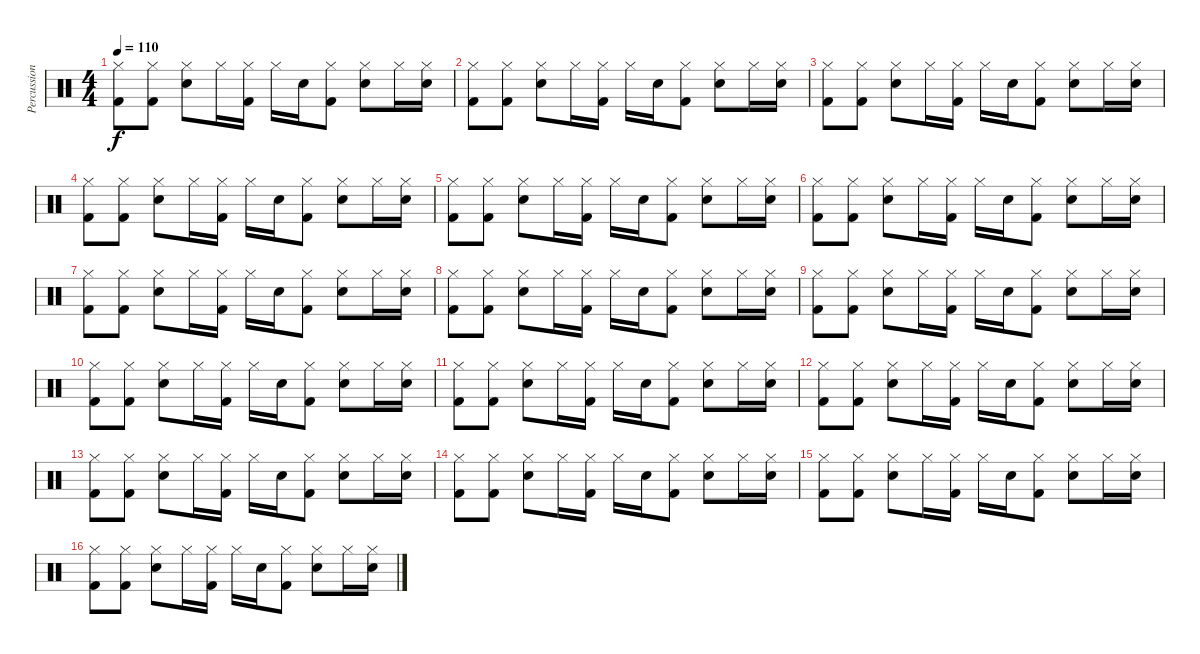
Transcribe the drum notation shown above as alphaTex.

\track ("Percussion" "Percussion") {instrument percussion}
\staff {score}
\articulation defaults
\ts (4 4)
\tempo 110
\clef neutral
\ks c
("Hi-Hat (closed)" "Kick (hit) 2").8{dy f} ("Hi-Hat (closed)" "Kick (hit) 2").8 ("Hi-Hat (closed)" "Snare (hit) 2").8 "Hi-Hat (closed)".16 ("Hi-Hat (closed)" "Kick (hit) 2").16 "Hi-Hat (closed)".16 "Snare (hit) 2".16 ("Hi-Hat (closed)" "Kick (hit) 2").8 ("Hi-Hat (closed)" "Snare (hit) 2").8 "Hi-Hat (closed)".16 ("Hi-Hat (closed)" "Snare (hit) 2").16 |
("Hi-Hat (closed)" "Kick (hit) 2").8 ("Hi-Hat (closed)" "Kick (hit) 2").8 ("Hi-Hat (closed)" "Snare (hit) 2").8 "Hi-Hat (closed)".16 ("Hi-Hat (closed)" "Kick (hit) 2").16 "Hi-Hat (closed)".16 "Snare (hit) 2".16 ("Hi-Hat (closed)" "Kick (hit) 2").8 ("Hi-Hat (closed)" "Snare (hit) 2").8 "Hi-Hat (closed)".16 ("Hi-Hat (closed)" "Snare (hit) 2").16 |
("Hi-Hat (closed)" "Kick (hit) 2").8 ("Hi-Hat (closed)" "Kick (hit) 2").8 ("Hi-Hat (closed)" "Snare (hit) 2").8 "Hi-Hat (closed)".16 ("Hi-Hat (closed)" "Kick (hit) 2").16 "Hi-Hat (closed)".16 "Snare (hit) 2".16 ("Hi-Hat (closed)" "Kick (hit) 2").8 ("Hi-Hat (closed)" "Snare (hit) 2").8 "Hi-Hat (closed)".16 ("Hi-Hat (closed)" "Snare (hit) 2").16 |
("Hi-Hat (closed)" "Kick (hit) 2").8 ("Hi-Hat (closed)" "Kick (hit) 2").8 ("Hi-Hat (closed)" "Snare (hit) 2").8 "Hi-Hat (closed)".16 ("Hi-Hat (closed)" "Kick (hit) 2").16 "Hi-Hat (closed)".16 "Snare (hit) 2".16 ("Hi-Hat (closed)" "Kick (hit) 2").8 ("Hi-Hat (closed)" "Snare (hit) 2").8 "Hi-Hat (closed)".16 ("Hi-Hat (closed)" "Snare (hit) 2").16 |
("Hi-Hat (closed)" "Kick (hit) 2").8 ("Hi-Hat (closed)" "Kick (hit) 2").8 ("Hi-Hat (closed)" "Snare (hit) 2").8 "Hi-Hat (closed)".16 ("Hi-Hat (closed)" "Kick (hit) 2").16 "Hi-Hat (closed)".16 "Snare (hit) 2".16 ("Hi-Hat (closed)" "Kick (hit) 2").8 ("Hi-Hat (closed)" "Snare (hit) 2").8 "Hi-Hat (closed)".16 ("Hi-Hat (closed)" "Snare (hit) 2").16 |
("Hi-Hat (closed)" "Kick (hit) 2").8 ("Hi-Hat (closed)" "Kick (hit) 2").8 ("Hi-Hat (closed)" "Snare (hit) 2").8 "Hi-Hat (closed)".16 ("Hi-Hat (closed)" "Kick (hit) 2").16 "Hi-Hat (closed)".16 "Snare (hit) 2".16 ("Hi-Hat (closed)" "Kick (hit) 2").8 ("Hi-Hat (closed)" "Snare (hit) 2").8 "Hi-Hat (closed)".16 ("Hi-Hat (closed)" "Snare (hit) 2").16 |
("Hi-Hat (closed)" "Kick (hit) 2").8 ("Hi-Hat (closed)" "Kick (hit) 2").8 ("Hi-Hat (closed)" "Snare (hit) 2").8 "Hi-Hat (closed)".16 ("Hi-Hat (closed)" "Kick (hit) 2").16 "Hi-Hat (closed)".16 "Snare (hit) 2".16 ("Hi-Hat (closed)" "Kick (hit) 2").8 ("Hi-Hat (closed)" "Snare (hit) 2").8 "Hi-Hat (closed)".16 ("Hi-Hat (closed)" "Snare (hit) 2").16 |
("Hi-Hat (closed)" "Kick (hit) 2").8 ("Hi-Hat (closed)" "Kick (hit) 2").8 ("Hi-Hat (closed)" "Snare (hit) 2").8 "Hi-Hat (closed)".16 ("Hi-Hat (closed)" "Kick (hit) 2").16 "Hi-Hat (closed)".16 "Snare (hit) 2".16 ("Hi-Hat (closed)" "Kick (hit) 2").8 ("Hi-Hat (closed)" "Snare (hit) 2").8 "Hi-Hat (closed)".16 ("Hi-Hat (closed)" "Snare (hit) 2").16 |
("Hi-Hat (closed)" "Kick (hit) 2").8 ("Hi-Hat (closed)" "Kick (hit) 2").8 ("Hi-Hat (closed)" "Snare (hit) 2").8 "Hi-Hat (closed)".16 ("Hi-Hat (closed)" "Kick (hit) 2").16 "Hi-Hat (closed)".16 "Snare (hit) 2".16 ("Hi-Hat (closed)" "Kick (hit) 2").8 ("Hi-Hat (closed)" "Snare (hit) 2").8 "Hi-Hat (closed)".16 ("Hi-Hat (closed)" "Snare (hit) 2").16 |
("Hi-Hat (closed)" "Kick (hit) 2").8 ("Hi-Hat (closed)" "Kick (hit) 2").8 ("Hi-Hat (closed)" "Snare (hit) 2").8 "Hi-Hat (closed)".16 ("Hi-Hat (closed)" "Kick (hit) 2").16 "Hi-Hat (closed)".16 "Snare (hit) 2".16 ("Hi-Hat (closed)" "Kick (hit) 2").8 ("Hi-Hat (closed)" "Snare (hit) 2").8 "Hi-Hat (closed)".16 ("Hi-Hat (closed)" "Snare (hit) 2").16 |
("Hi-Hat (closed)" "Kick (hit) 2").8 ("Hi-Hat (closed)" "Kick (hit) 2").8 ("Hi-Hat (closed)" "Snare (hit) 2").8 "Hi-Hat (closed)".16 ("Hi-Hat (closed)" "Kick (hit) 2").16 "Hi-Hat (closed)".16 "Snare (hit) 2".16 ("Hi-Hat (closed)" "Kick (hit) 2").8 ("Hi-Hat (closed)" "Snare (hit) 2").8 "Hi-Hat (closed)".16 ("Hi-Hat (closed)" "Snare (hit) 2").16 |
("Hi-Hat (closed)" "Kick (hit) 2").8 ("Hi-Hat (closed)" "Kick (hit) 2").8 ("Hi-Hat (closed)" "Snare (hit) 2").8 "Hi-Hat (closed)".16 ("Hi-Hat (closed)" "Kick (hit) 2").16 "Hi-Hat (closed)".16 "Snare (hit) 2".16 ("Hi-Hat (closed)" "Kick (hit) 2").8 ("Hi-Hat (closed)" "Snare (hit) 2").8 "Hi-Hat (closed)".16 ("Hi-Hat (closed)" "Snare (hit) 2").16 |
("Hi-Hat (closed)" "Kick (hit) 2").8 ("Hi-Hat (closed)" "Kick (hit) 2").8 ("Hi-Hat (closed)" "Snare (hit) 2").8 "Hi-Hat (closed)".16 ("Hi-Hat (closed)" "Kick (hit) 2").16 "Hi-Hat (closed)".16 "Snare (hit) 2".16 ("Hi-Hat (closed)" "Kick (hit) 2").8 ("Hi-Hat (closed)" "Snare (hit) 2").8 "Hi-Hat (closed)".16 ("Hi-Hat (closed)" "Snare (hit) 2").16 |
("Hi-Hat (closed)" "Kick (hit) 2").8 ("Hi-Hat (closed)" "Kick (hit) 2").8 ("Hi-Hat (closed)" "Snare (hit) 2").8 "Hi-Hat (closed)".16 ("Hi-Hat (closed)" "Kick (hit) 2").16 "Hi-Hat (closed)".16 "Snare (hit) 2".16 ("Hi-Hat (closed)" "Kick (hit) 2").8 ("Hi-Hat (closed)" "Snare (hit) 2").8 "Hi-Hat (closed)".16 ("Hi-Hat (closed)" "Snare (hit) 2").16 |
("Hi-Hat (closed)" "Kick (hit) 2").8 ("Hi-Hat (closed)" "Kick (hit) 2").8 ("Hi-Hat (closed)" "Snare (hit) 2").8 "Hi-Hat (closed)".16 ("Hi-Hat (closed)" "Kick (hit) 2").16 "Hi-Hat (closed)".16 "Snare (hit) 2".16 ("Hi-Hat (closed)" "Kick (hit) 2").8 ("Hi-Hat (closed)" "Snare (hit) 2").8 "Hi-Hat (closed)".16 ("Hi-Hat (closed)" "Snare (hit) 2").16 |
("Hi-Hat (closed)" "Kick (hit) 2").8 ("Hi-Hat (closed)" "Kick (hit) 2").8 ("Hi-Hat (closed)" "Snare (hit) 2").8 "Hi-Hat (closed)".16 ("Hi-Hat (closed)" "Kick (hit) 2").16 "Hi-Hat (closed)".16 "Snare (hit) 2".16 ("Hi-Hat (closed)" "Kick (hit) 2").8 ("Hi-Hat (closed)" "Snare (hit) 2").8 "Hi-Hat (closed)".16 ("Hi-Hat (closed)" "Snare (hit) 2").16
